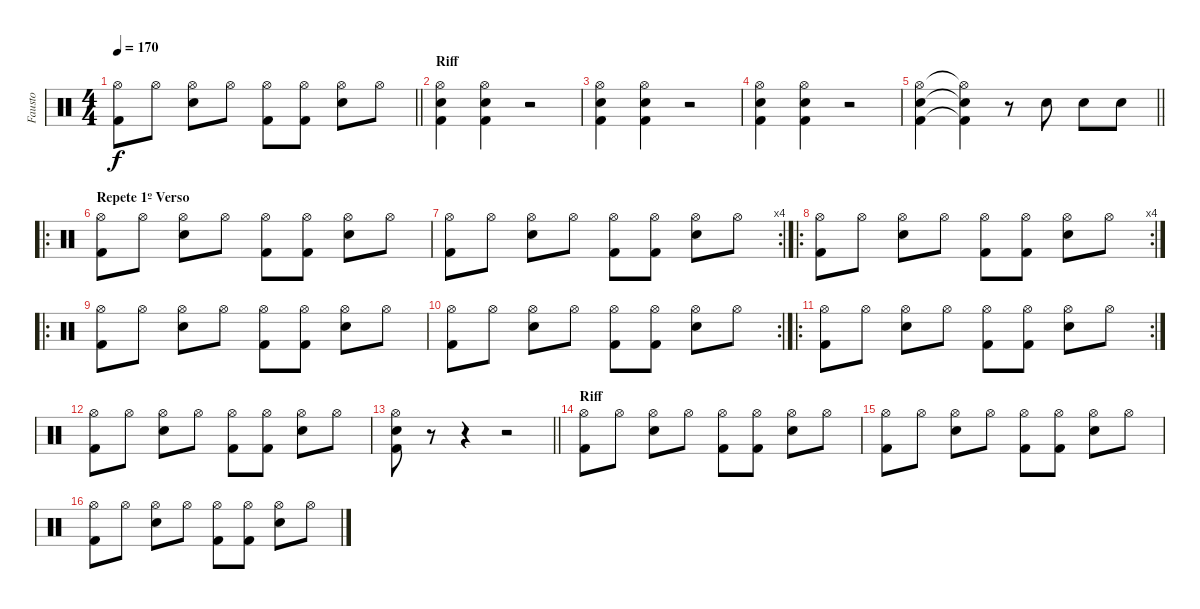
\track ("Fausto" "Fausto") {instrument percussion}
\staff {score}
\articulation defaults
\ts (4 4)
\tempo 170
\clef neutral
\barLineRight lightlight
\ks c
("Hi-Hat (open)" "Kick (hit) 2").8{dy f} "Hi-Hat (open)".8 ("Hi-Hat (open)" "Snare (hit) 2").8 "Hi-Hat (open)".8 ("Hi-Hat (open)" "Kick (hit) 2").8 ("Hi-Hat (open)" "Kick (hit) 2").8 ("Hi-Hat (open)" "Snare (hit) 2").8 "Hi-Hat (open)".8 |
\section ("" "Riff")
("Hi-Hat (open)" "Snare (hit) 2" "Kick (hit) 2").4 ("Hi-Hat (open)" "Snare (hit) 2" "Kick (hit) 2").4 r.2 |
("Hi-Hat (open)" "Snare (hit) 2" "Kick (hit) 2").4 ("Hi-Hat (open)" "Snare (hit) 2" "Kick (hit) 2").4 r.2 |
("Hi-Hat (open)" "Snare (hit) 2" "Kick (hit) 2").4 ("Hi-Hat (open)" "Snare (hit) 2" "Kick (hit) 2").4 r.2 |
\barLineRight lightlight
("Hi-Hat (open)" "Snare (hit) 2" "Kick (hit) 2").4 ("Hi-Hat (open)"{t} "Snare (hit) 2"{t} "Kick (hit) 2"{t}).4 r.8 "Snare (hit) 2".8 "Snare (hit) 2".8 "Snare (hit) 2".8 |
\ro
\section ("" "Repete 1º Verso")
("Hi-Hat (open)" "Kick (hit) 2").8 "Hi-Hat (open)".8 ("Hi-Hat (open)" "Snare (hit) 2").8 "Hi-Hat (open)".8 ("Hi-Hat (open)" "Kick (hit) 2").8 ("Hi-Hat (open)" "Kick (hit) 2").8 ("Hi-Hat (open)" "Snare (hit) 2").8 "Hi-Hat (open)".8 |
\rc 4
("Hi-Hat (open)" "Kick (hit) 2").8 "Hi-Hat (open)".8 ("Hi-Hat (open)" "Snare (hit) 2").8 "Hi-Hat (open)".8 ("Hi-Hat (open)" "Kick (hit) 2").8 ("Hi-Hat (open)" "Kick (hit) 2").8 ("Hi-Hat (open)" "Snare (hit) 2").8 "Hi-Hat (open)".8 |
\ro
\rc 4
("Hi-Hat (open)" "Kick (hit) 2").8 "Hi-Hat (open)".8 ("Hi-Hat (open)" "Snare (hit) 2").8 "Hi-Hat (open)".8 ("Hi-Hat (open)" "Kick (hit) 2").8 ("Hi-Hat (open)" "Kick (hit) 2").8 ("Hi-Hat (open)" "Snare (hit) 2").8 "Hi-Hat (open)".8 |
\ro
("Hi-Hat (open)" "Kick (hit) 2").8 "Hi-Hat (open)".8 ("Hi-Hat (open)" "Snare (hit) 2").8 "Hi-Hat (open)".8 ("Hi-Hat (open)" "Kick (hit) 2").8 ("Hi-Hat (open)" "Kick (hit) 2").8 ("Hi-Hat (open)" "Snare (hit) 2").8 "Hi-Hat (open)".8 |
\rc 2
("Hi-Hat (open)" "Kick (hit) 2").8 "Hi-Hat (open)".8 ("Hi-Hat (open)" "Snare (hit) 2").8 "Hi-Hat (open)".8 ("Hi-Hat (open)" "Kick (hit) 2").8 ("Hi-Hat (open)" "Kick (hit) 2").8 ("Hi-Hat (open)" "Snare (hit) 2").8 "Hi-Hat (open)".8 |
\ro
\rc 2
("Hi-Hat (open)" "Kick (hit) 2").8 "Hi-Hat (open)".8 ("Hi-Hat (open)" "Snare (hit) 2").8 "Hi-Hat (open)".8 ("Hi-Hat (open)" "Kick (hit) 2").8 ("Hi-Hat (open)" "Kick (hit) 2").8 ("Hi-Hat (open)" "Snare (hit) 2").8 "Hi-Hat (open)".8 |
("Hi-Hat (open)" "Kick (hit) 2").8 "Hi-Hat (open)".8 ("Hi-Hat (open)" "Snare (hit) 2").8 "Hi-Hat (open)".8 ("Hi-Hat (open)" "Kick (hit) 2").8 ("Hi-Hat (open)" "Kick (hit) 2").8 ("Hi-Hat (open)" "Snare (hit) 2").8 "Hi-Hat (open)".8 |
\barLineRight lightlight
("Hi-Hat (open)" "Snare (hit) 2" "Kick (hit) 2").8 r.8 r.4 r.2 |
\section ("" "Riff")
("Hi-Hat (open)" "Kick (hit) 2").8 "Hi-Hat (open)".8 ("Hi-Hat (open)" "Snare (hit) 2").8 "Hi-Hat (open)".8 ("Hi-Hat (open)" "Kick (hit) 2").8 ("Hi-Hat (open)" "Kick (hit) 2").8 ("Hi-Hat (open)" "Snare (hit) 2").8 "Hi-Hat (open)".8 |
("Hi-Hat (open)" "Kick (hit) 2").8 "Hi-Hat (open)".8 ("Hi-Hat (open)" "Snare (hit) 2").8 "Hi-Hat (open)".8 ("Hi-Hat (open)" "Kick (hit) 2").8 ("Hi-Hat (open)" "Kick (hit) 2").8 ("Hi-Hat (open)" "Snare (hit) 2").8 "Hi-Hat (open)".8 |
("Hi-Hat (open)" "Kick (hit) 2").8 "Hi-Hat (open)".8 ("Hi-Hat (open)" "Snare (hit) 2").8 "Hi-Hat (open)".8 ("Hi-Hat (open)" "Kick (hit) 2").8 ("Hi-Hat (open)" "Kick (hit) 2").8 ("Hi-Hat (open)" "Snare (hit) 2").8 "Hi-Hat (open)".8
